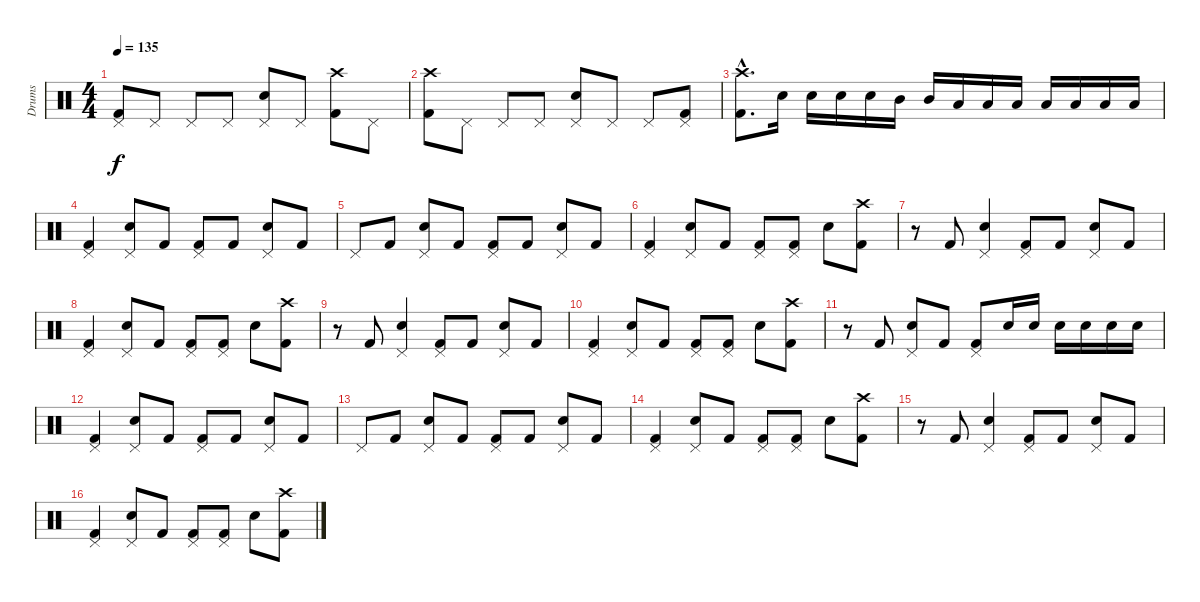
\track ("Drums" "Drums") {instrument percussion}
\staff {score}
\articulation defaults
\ts (4 4)
\tempo 135
\clef neutral
\ks c
("Pedal Hi-Hat (hit)" "Kick (hit) 2").8{dy f} "Pedal Hi-Hat (hit)".8 "Pedal Hi-Hat (hit)".8 "Pedal Hi-Hat (hit)".8 ("Pedal Hi-Hat (hit)" "Electric Snare (hit)").8 "Pedal Hi-Hat (hit)".8 ("Crash high (hit)" "Kick (hit) 2").8 "Pedal Hi-Hat (hit)".8 |
("Crash high (hit)" "Kick (hit) 2").8 "Pedal Hi-Hat (hit)".8 "Pedal Hi-Hat (hit)".8 "Pedal Hi-Hat (hit)".8 ("Pedal Hi-Hat (hit)" "Electric Snare (hit)").8 "Pedal Hi-Hat (hit)".8 "Pedal Hi-Hat (hit)".8 ("Pedal Hi-Hat (hit)" "Kick (hit) 2").8 |
("Crash high (hit)"{hac} "Kick (hit) 2"{hac}).8{d} "Electric Snare (hit)".16 "Electric Snare (hit)".16 "Electric Snare (hit)".16 "Electric Snare (hit)".16 "Mid Tom (hit)".16 "Mid Tom (hit)".16 "Low Tom (hit)".16 "Low Tom (hit)".16 "Low Tom (hit)".16 "Low Floor Tom (hit)".16 "Low Floor Tom (hit)".16 "Low Floor Tom (hit)".16 "Low Floor Tom (hit)".16 |
("Pedal Hi-Hat (hit)" "Kick (hit) 2").4 ("Pedal Hi-Hat (hit)" "Electric Snare (hit)").8 "Kick (hit) 2".8 ("Pedal Hi-Hat (hit)" "Kick (hit) 2").8 "Kick (hit) 2".8 ("Pedal Hi-Hat (hit)" "Electric Snare (hit)").8 "Kick (hit) 2".8 |
"Pedal Hi-Hat (hit)".8 "Kick (hit) 2".8 ("Pedal Hi-Hat (hit)" "Electric Snare (hit)").8 "Kick (hit) 2".8 ("Pedal Hi-Hat (hit)" "Kick (hit) 2").8 "Kick (hit) 2".8 ("Pedal Hi-Hat (hit)" "Electric Snare (hit)").8 "Kick (hit) 2".8 |
("Pedal Hi-Hat (hit)" "Kick (hit) 2").4 ("Pedal Hi-Hat (hit)" "Electric Snare (hit)").8 "Kick (hit) 2".8 ("Pedal Hi-Hat (hit)" "Kick (hit) 2").8 ("Pedal Hi-Hat (hit)" "Kick (hit) 2").8 "Electric Snare (hit)".8 ("Crash high (hit)" "Kick (hit) 2").8 |
r.8 "Kick (hit) 2".8 ("Pedal Hi-Hat (hit)" "Electric Snare (hit)").4 ("Pedal Hi-Hat (hit)" "Kick (hit) 2").8 "Kick (hit) 2".8 ("Pedal Hi-Hat (hit)" "Electric Snare (hit)").8 "Kick (hit) 2".8 |
("Pedal Hi-Hat (hit)" "Kick (hit) 2").4 ("Pedal Hi-Hat (hit)" "Electric Snare (hit)").8 "Kick (hit) 2".8 ("Pedal Hi-Hat (hit)" "Kick (hit) 2").8 ("Pedal Hi-Hat (hit)" "Kick (hit) 2").8 "Electric Snare (hit)".8 ("Crash high (hit)" "Kick (hit) 2").8 |
r.8 "Kick (hit) 2".8 ("Pedal Hi-Hat (hit)" "Electric Snare (hit)").4 ("Pedal Hi-Hat (hit)" "Kick (hit) 2").8 "Kick (hit) 2".8 ("Pedal Hi-Hat (hit)" "Electric Snare (hit)").8 "Kick (hit) 2".8 |
("Pedal Hi-Hat (hit)" "Kick (hit) 2").4 ("Pedal Hi-Hat (hit)" "Electric Snare (hit)").8 "Kick (hit) 2".8 ("Pedal Hi-Hat (hit)" "Kick (hit) 2").8 ("Pedal Hi-Hat (hit)" "Kick (hit) 2").8 "Electric Snare (hit)".8 ("Crash high (hit)" "Kick (hit) 2").8 |
r.8 "Kick (hit) 2".8 ("Pedal Hi-Hat (hit)" "Electric Snare (hit)").8 "Kick (hit) 2".8 ("Pedal Hi-Hat (hit)" "Kick (hit) 2").8 "Electric Snare (hit)".16 "Electric Snare (hit)".16 "Electric Snare (hit)".16 "Electric Snare (hit)".16 "Electric Snare (hit)".16 "Electric Snare (hit)".16 |
("Pedal Hi-Hat (hit)" "Kick (hit) 2").4 ("Pedal Hi-Hat (hit)" "Electric Snare (hit)").8 "Kick (hit) 2".8 ("Pedal Hi-Hat (hit)" "Kick (hit) 2").8 "Kick (hit) 2".8 ("Pedal Hi-Hat (hit)" "Electric Snare (hit)").8 "Kick (hit) 2".8 |
"Pedal Hi-Hat (hit)".8 "Kick (hit) 2".8 ("Pedal Hi-Hat (hit)" "Electric Snare (hit)").8 "Kick (hit) 2".8 ("Pedal Hi-Hat (hit)" "Kick (hit) 2").8 "Kick (hit) 2".8 ("Pedal Hi-Hat (hit)" "Electric Snare (hit)").8 "Kick (hit) 2".8 |
("Pedal Hi-Hat (hit)" "Kick (hit) 2").4 ("Pedal Hi-Hat (hit)" "Electric Snare (hit)").8 "Kick (hit) 2".8 ("Pedal Hi-Hat (hit)" "Kick (hit) 2").8 ("Pedal Hi-Hat (hit)" "Kick (hit) 2").8 "Electric Snare (hit)".8 ("Crash high (hit)" "Kick (hit) 2").8 |
r.8 "Kick (hit) 2".8 ("Pedal Hi-Hat (hit)" "Electric Snare (hit)").4 ("Pedal Hi-Hat (hit)" "Kick (hit) 2").8 "Kick (hit) 2".8 ("Pedal Hi-Hat (hit)" "Electric Snare (hit)").8 "Kick (hit) 2".8 |
("Pedal Hi-Hat (hit)" "Kick (hit) 2").4 ("Pedal Hi-Hat (hit)" "Electric Snare (hit)").8 "Kick (hit) 2".8 ("Pedal Hi-Hat (hit)" "Kick (hit) 2").8 ("Pedal Hi-Hat (hit)" "Kick (hit) 2").8 "Electric Snare (hit)".8 ("Crash high (hit)" "Kick (hit) 2").8
